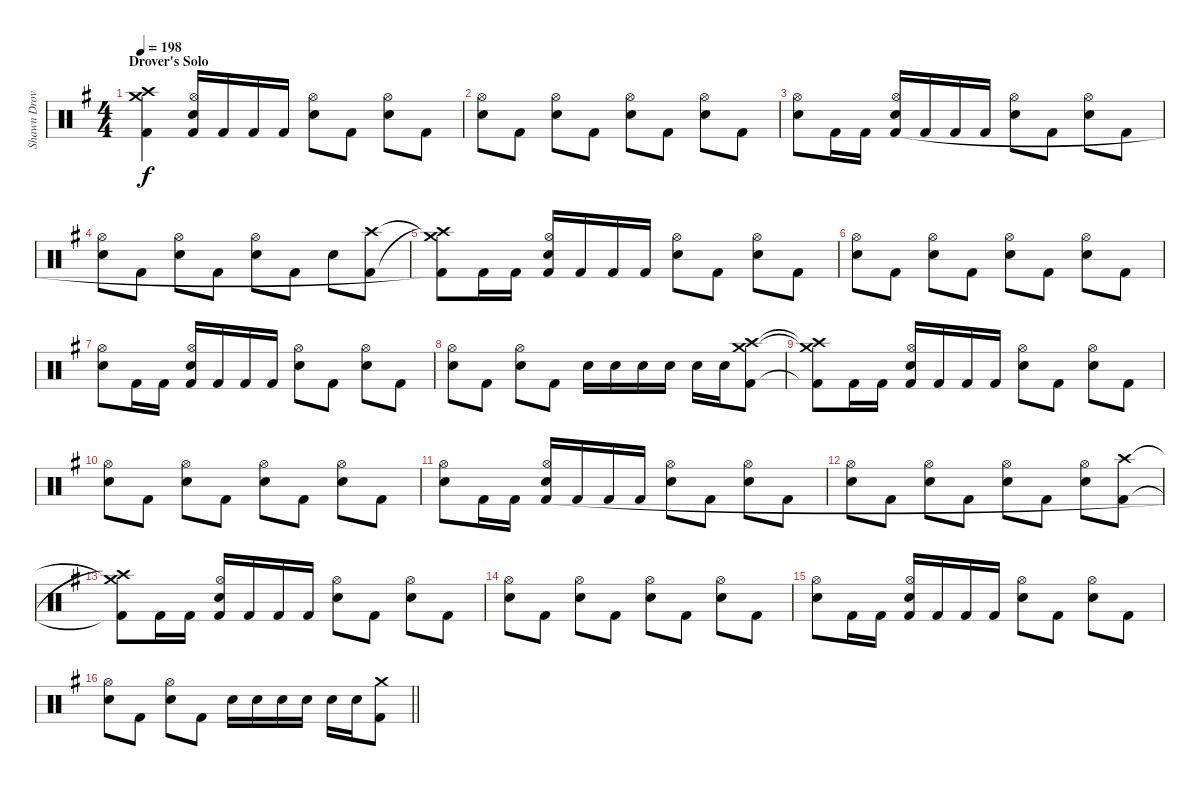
\track ("Shawn Drover" "Shawn Drov") {instrument percussion}
\staff {score}
\articulation defaults
\ts (4 4)
\section ("" "Drover's Solo")
\tempo 198
\clef neutral
\ks g
("Crash medium (hit)" "Crash high (hit)" "Kick (hit) 2").4{dy f} ("Hi-Hat (open)" "Snare (hit) 2" "Kick (hit) 2").16 "Kick (hit) 2".16 "Kick (hit) 2".16 "Kick (hit) 2".16 ("Hi-Hat (open)" "Snare (hit) 2").8 "Kick (hit) 2".8 ("Hi-Hat (open)" "Snare (hit) 2").8 "Kick (hit) 2".8 |
("Hi-Hat (open)" "Snare (hit) 2").8 "Kick (hit) 2".8 ("Hi-Hat (open)" "Snare (hit) 2").8 "Kick (hit) 2".8 ("Hi-Hat (open)" "Snare (hit) 2").8 "Kick (hit) 2".8 ("Hi-Hat (open)" "Snare (hit) 2").8 "Kick (hit) 2".8 |
("Hi-Hat (open)" "Snare (hit) 2").8 "Kick (hit) 2".16 "Kick (hit) 2".16 ("Hi-Hat (open)" "Snare (hit) 2" "Kick (hit) 2").16 "Kick (hit) 2".16 "Kick (hit) 2".16 "Kick (hit) 2".16 ("Hi-Hat (open)" "Snare (hit) 2").8 "Kick (hit) 2".8 ("Hi-Hat (open)" "Snare (hit) 2").8 "Kick (hit) 2".8 |
("Hi-Hat (open)" "Snare (hit) 2").8 "Kick (hit) 2".8 ("Hi-Hat (open)" "Snare (hit) 2").8 "Kick (hit) 2".8 ("Hi-Hat (open)" "Snare (hit) 2").8 "Kick (hit) 2".8 "Snare (hit) 2".8 ("Crash high (hit)" "Kick (hit) 2").8 |
("Crash medium (hit)"{t} "Crash high (hit)"{t} "Kick (hit) 2"{t}).8 "Kick (hit) 2".16 "Kick (hit) 2".16 ("Hi-Hat (open)" "Snare (hit) 2" "Kick (hit) 2").16 "Kick (hit) 2".16 "Kick (hit) 2".16 "Kick (hit) 2".16 ("Hi-Hat (open)" "Snare (hit) 2").8 "Kick (hit) 2".8 ("Hi-Hat (open)" "Snare (hit) 2").8 "Kick (hit) 2".8 |
("Hi-Hat (open)" "Snare (hit) 2").8 "Kick (hit) 2".8 ("Hi-Hat (open)" "Snare (hit) 2").8 "Kick (hit) 2".8 ("Hi-Hat (open)" "Snare (hit) 2").8 "Kick (hit) 2".8 ("Hi-Hat (open)" "Snare (hit) 2").8 "Kick (hit) 2".8 |
("Hi-Hat (open)" "Snare (hit) 2").8 "Kick (hit) 2".16 "Kick (hit) 2".16 ("Hi-Hat (open)" "Snare (hit) 2" "Kick (hit) 2").16 "Kick (hit) 2".16 "Kick (hit) 2".16 "Kick (hit) 2".16 ("Hi-Hat (open)" "Snare (hit) 2").8 "Kick (hit) 2".8 ("Hi-Hat (open)" "Snare (hit) 2").8 "Kick (hit) 2".8 |
("Hi-Hat (open)" "Snare (hit) 2").8 "Kick (hit) 2".8 ("Hi-Hat (open)" "Snare (hit) 2").8 "Kick (hit) 2".8 "Snare (hit) 2".16 "Snare (hit) 2".16 "Snare (hit) 2".16 "Snare (hit) 2".16 "Snare (hit) 2".16 "Snare (hit) 2".16 ("Crash medium (hit)" "Crash high (hit)" "Kick (hit) 2").8 |
("Crash medium (hit)"{t} "Crash high (hit)"{t} "Kick (hit) 2"{t}).8 "Kick (hit) 2".16 "Kick (hit) 2".16 ("Hi-Hat (open)" "Snare (hit) 2" "Kick (hit) 2").16 "Kick (hit) 2".16 "Kick (hit) 2".16 "Kick (hit) 2".16 ("Hi-Hat (open)" "Snare (hit) 2").8 "Kick (hit) 2".8 ("Hi-Hat (open)" "Snare (hit) 2").8 "Kick (hit) 2".8 |
("Hi-Hat (open)" "Snare (hit) 2").8 "Kick (hit) 2".8 ("Hi-Hat (open)" "Snare (hit) 2").8 "Kick (hit) 2".8 ("Hi-Hat (open)" "Snare (hit) 2").8 "Kick (hit) 2".8 ("Hi-Hat (open)" "Snare (hit) 2").8 "Kick (hit) 2".8 |
("Hi-Hat (open)" "Snare (hit) 2").8 "Kick (hit) 2".16 "Kick (hit) 2".16 ("Hi-Hat (open)" "Snare (hit) 2" "Kick (hit) 2").16 "Kick (hit) 2".16 "Kick (hit) 2".16 "Kick (hit) 2".16 ("Hi-Hat (open)" "Snare (hit) 2").8 "Kick (hit) 2".8 ("Hi-Hat (open)" "Snare (hit) 2").8 "Kick (hit) 2".8 |
("Hi-Hat (open)" "Snare (hit) 2").8 "Kick (hit) 2".8 ("Hi-Hat (open)" "Snare (hit) 2").8 "Kick (hit) 2".8 ("Hi-Hat (open)" "Snare (hit) 2").8 "Kick (hit) 2".8 ("Hi-Hat (open)" "Snare (hit) 2").8 ("Crash high (hit)" "Kick (hit) 2").8 |
("Crash medium (hit)"{t} "Crash high (hit)"{t} "Kick (hit) 2"{t}).8 "Kick (hit) 2".16 "Kick (hit) 2".16 ("Hi-Hat (open)" "Snare (hit) 2" "Kick (hit) 2").16 "Kick (hit) 2".16 "Kick (hit) 2".16 "Kick (hit) 2".16 ("Hi-Hat (open)" "Snare (hit) 2").8 "Kick (hit) 2".8 ("Hi-Hat (open)" "Snare (hit) 2").8 "Kick (hit) 2".8 |
("Hi-Hat (open)" "Snare (hit) 2").8 "Kick (hit) 2".8 ("Hi-Hat (open)" "Snare (hit) 2").8 "Kick (hit) 2".8 ("Hi-Hat (open)" "Snare (hit) 2").8 "Kick (hit) 2".8 ("Hi-Hat (open)" "Snare (hit) 2").8 "Kick (hit) 2".8 |
("Hi-Hat (open)" "Snare (hit) 2").8 "Kick (hit) 2".16 "Kick (hit) 2".16 ("Hi-Hat (open)" "Snare (hit) 2" "Kick (hit) 2").16 "Kick (hit) 2".16 "Kick (hit) 2".16 "Kick (hit) 2".16 ("Hi-Hat (open)" "Snare (hit) 2").8 "Kick (hit) 2".8 ("Hi-Hat (open)" "Snare (hit) 2").8 "Kick (hit) 2".8 |
\barLineRight lightlight
("Hi-Hat (open)" "Snare (hit) 2").8 "Kick (hit) 2".8 ("Hi-Hat (open)" "Snare (hit) 2").8 "Kick (hit) 2".8 "Snare (hit) 2".16 "Snare (hit) 2".16 "Snare (hit) 2".16 "Snare (hit) 2".16 "Snare (hit) 2".16 "Snare (hit) 2".16 ("Crash medium (hit)" "Kick (hit) 2").8
